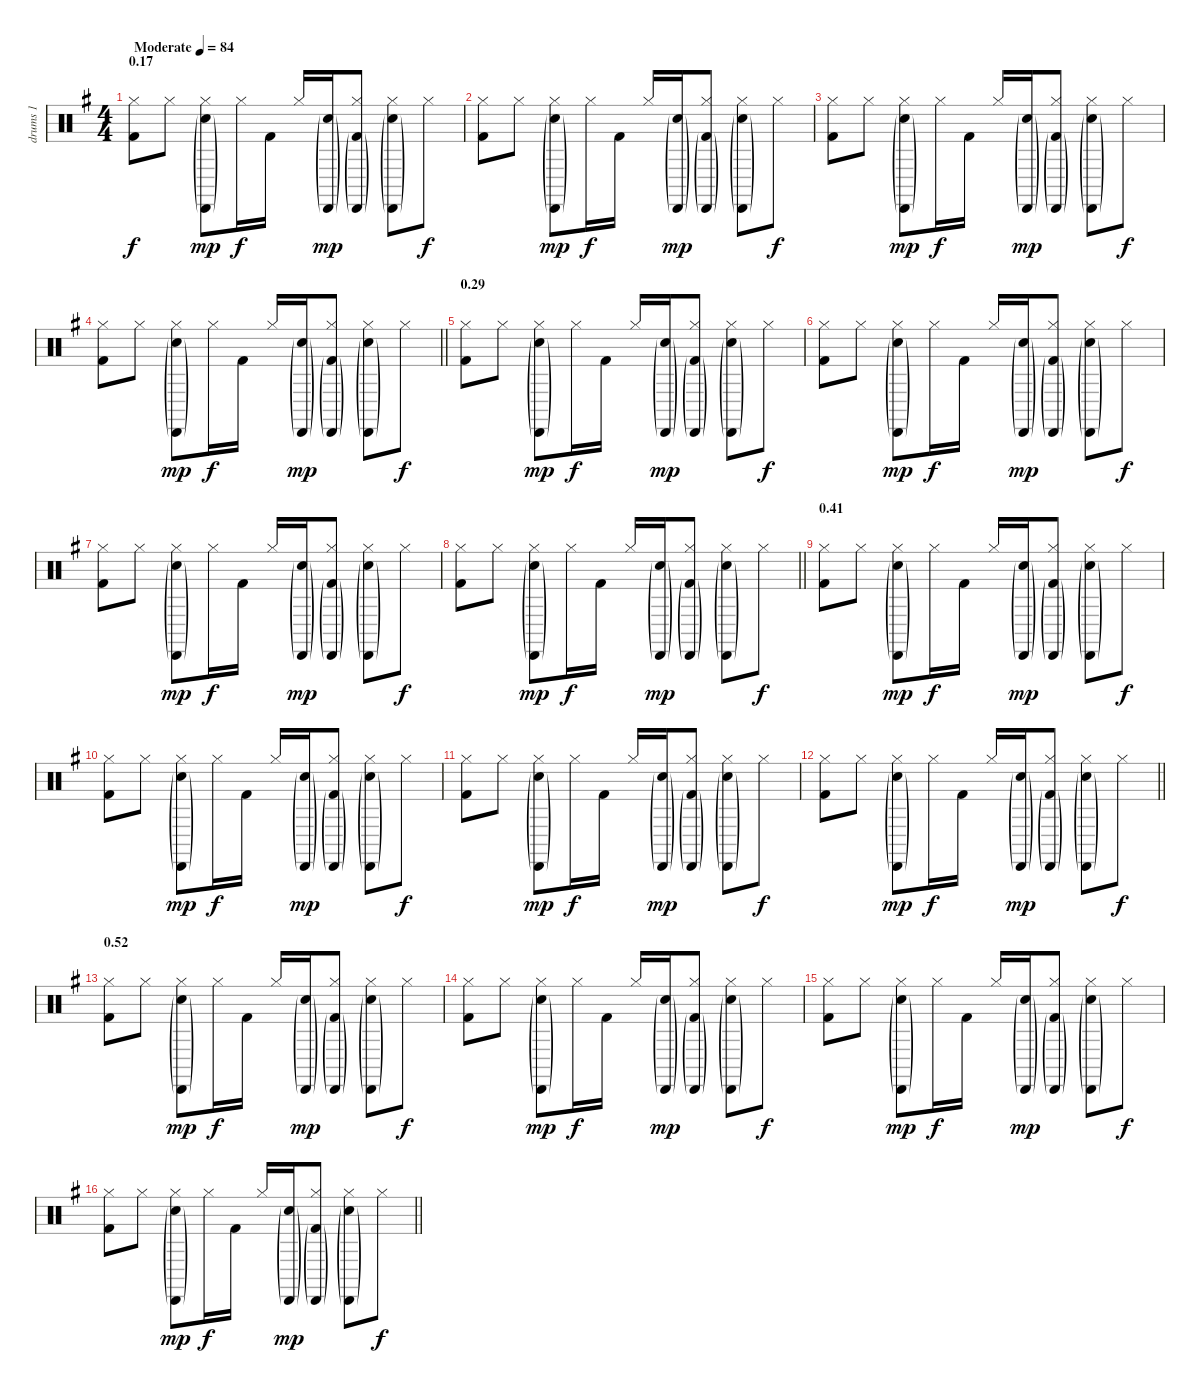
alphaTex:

\track ("drums 1" "drums 1") {instrument percussion}
\staff {score}
\articulation defaults
\ts (4 4)
\section ("" "0.17")
\tempo (84 "Moderate")
\clef neutral
\ks g
("Hi-Hat (closed)" "Kick (hit) 2").8{dy f} "Hi-Hat (closed)".8 ("Cabasa (hit)"{g} "Hi-Hat (closed)" "Electric Snare (hit)"{g}).8{dy mp} "Hi-Hat (closed)".16{dy f} "Kick (hit) 2".16 "Hi-Hat (closed)".16 ("Cabasa (hit)"{g} "Electric Snare (hit)"{g}).16{dy mp} ("Cabasa (hit)"{g} "Hi-Hat (closed)" "Kick (hit) 2"{g}).8 ("Cabasa (hit)"{g} "Hi-Hat (closed)" "Electric Snare (hit)"{g}).8 "Hi-Hat (closed)".8{dy f} |
("Hi-Hat (closed)" "Kick (hit) 2").8 "Hi-Hat (closed)".8 ("Cabasa (hit)"{g} "Hi-Hat (closed)" "Electric Snare (hit)"{g}).8{dy mp} "Hi-Hat (closed)".16{dy f} "Kick (hit) 2".16 "Hi-Hat (closed)".16 ("Cabasa (hit)"{g} "Electric Snare (hit)"{g}).16{dy mp} ("Cabasa (hit)"{g} "Hi-Hat (closed)" "Kick (hit) 2"{g}).8 ("Cabasa (hit)"{g} "Hi-Hat (closed)" "Electric Snare (hit)"{g}).8 "Hi-Hat (closed)".8{dy f} |
("Hi-Hat (closed)" "Kick (hit) 2").8 "Hi-Hat (closed)".8 ("Cabasa (hit)"{g} "Hi-Hat (closed)" "Electric Snare (hit)"{g}).8{dy mp} "Hi-Hat (closed)".16{dy f} "Kick (hit) 2".16 "Hi-Hat (closed)".16 ("Cabasa (hit)"{g} "Electric Snare (hit)"{g}).16{dy mp} ("Cabasa (hit)"{g} "Hi-Hat (closed)" "Kick (hit) 2"{g}).8 ("Cabasa (hit)"{g} "Hi-Hat (closed)" "Electric Snare (hit)"{g}).8 "Hi-Hat (closed)".8{dy f} |
\barLineRight lightlight
("Hi-Hat (closed)" "Kick (hit) 2").8 "Hi-Hat (closed)".8 ("Cabasa (hit)"{g} "Hi-Hat (closed)" "Electric Snare (hit)"{g}).8{dy mp} "Hi-Hat (closed)".16{dy f} "Kick (hit) 2".16 "Hi-Hat (closed)".16 ("Cabasa (hit)"{g} "Electric Snare (hit)"{g}).16{dy mp} ("Cabasa (hit)"{g} "Hi-Hat (closed)" "Kick (hit) 2"{g}).8 ("Cabasa (hit)"{g} "Hi-Hat (closed)" "Electric Snare (hit)"{g}).8 "Hi-Hat (closed)".8{dy f} |
\section ("" "0.29")
("Hi-Hat (closed)" "Kick (hit) 2").8 "Hi-Hat (closed)".8 ("Cabasa (hit)"{g} "Hi-Hat (closed)" "Electric Snare (hit)"{g}).8{dy mp} "Hi-Hat (closed)".16{dy f} "Kick (hit) 2".16 "Hi-Hat (closed)".16 ("Cabasa (hit)"{g} "Electric Snare (hit)"{g}).16{dy mp} ("Cabasa (hit)"{g} "Hi-Hat (closed)" "Kick (hit) 2"{g}).8 ("Cabasa (hit)"{g} "Hi-Hat (closed)" "Electric Snare (hit)"{g}).8 "Hi-Hat (closed)".8{dy f} |
("Hi-Hat (closed)" "Kick (hit) 2").8 "Hi-Hat (closed)".8 ("Cabasa (hit)"{g} "Hi-Hat (closed)" "Electric Snare (hit)"{g}).8{dy mp} "Hi-Hat (closed)".16{dy f} "Kick (hit) 2".16 "Hi-Hat (closed)".16 ("Cabasa (hit)"{g} "Electric Snare (hit)"{g}).16{dy mp} ("Cabasa (hit)"{g} "Hi-Hat (closed)" "Kick (hit) 2"{g}).8 ("Cabasa (hit)"{g} "Hi-Hat (closed)" "Electric Snare (hit)"{g}).8 "Hi-Hat (closed)".8{dy f} |
("Hi-Hat (closed)" "Kick (hit) 2").8 "Hi-Hat (closed)".8 ("Cabasa (hit)"{g} "Hi-Hat (closed)" "Electric Snare (hit)"{g}).8{dy mp} "Hi-Hat (closed)".16{dy f} "Kick (hit) 2".16 "Hi-Hat (closed)".16 ("Cabasa (hit)"{g} "Electric Snare (hit)"{g}).16{dy mp} ("Cabasa (hit)"{g} "Hi-Hat (closed)" "Kick (hit) 2"{g}).8 ("Cabasa (hit)"{g} "Hi-Hat (closed)" "Electric Snare (hit)"{g}).8 "Hi-Hat (closed)".8{dy f} |
\barLineRight lightlight
("Hi-Hat (closed)" "Kick (hit) 2").8 "Hi-Hat (closed)".8 ("Cabasa (hit)"{g} "Hi-Hat (closed)" "Electric Snare (hit)"{g}).8{dy mp} "Hi-Hat (closed)".16{dy f} "Kick (hit) 2".16 "Hi-Hat (closed)".16 ("Cabasa (hit)"{g} "Electric Snare (hit)"{g}).16{dy mp} ("Cabasa (hit)"{g} "Hi-Hat (closed)" "Kick (hit) 2"{g}).8 ("Cabasa (hit)"{g} "Hi-Hat (closed)" "Electric Snare (hit)"{g}).8 "Hi-Hat (closed)".8{dy f} |
\section ("" "0.41")
("Hi-Hat (closed)" "Kick (hit) 2").8 "Hi-Hat (closed)".8 ("Cabasa (hit)"{g} "Hi-Hat (closed)" "Electric Snare (hit)"{g}).8{dy mp} "Hi-Hat (closed)".16{dy f} "Kick (hit) 2".16 "Hi-Hat (closed)".16 ("Cabasa (hit)"{g} "Electric Snare (hit)"{g}).16{dy mp} ("Cabasa (hit)"{g} "Hi-Hat (closed)" "Kick (hit) 2"{g}).8 ("Cabasa (hit)"{g} "Hi-Hat (closed)" "Electric Snare (hit)"{g}).8 "Hi-Hat (closed)".8{dy f} |
("Hi-Hat (closed)" "Kick (hit) 2").8 "Hi-Hat (closed)".8 ("Cabasa (hit)"{g} "Hi-Hat (closed)" "Electric Snare (hit)"{g}).8{dy mp} "Hi-Hat (closed)".16{dy f} "Kick (hit) 2".16 "Hi-Hat (closed)".16 ("Cabasa (hit)"{g} "Electric Snare (hit)"{g}).16{dy mp} ("Cabasa (hit)"{g} "Hi-Hat (closed)" "Kick (hit) 2"{g}).8 ("Cabasa (hit)"{g} "Hi-Hat (closed)" "Electric Snare (hit)"{g}).8 "Hi-Hat (closed)".8{dy f} |
("Hi-Hat (closed)" "Kick (hit) 2").8 "Hi-Hat (closed)".8 ("Cabasa (hit)"{g} "Hi-Hat (closed)" "Electric Snare (hit)"{g}).8{dy mp} "Hi-Hat (closed)".16{dy f} "Kick (hit) 2".16 "Hi-Hat (closed)".16 ("Cabasa (hit)"{g} "Electric Snare (hit)"{g}).16{dy mp} ("Cabasa (hit)"{g} "Hi-Hat (closed)" "Kick (hit) 2"{g}).8 ("Cabasa (hit)"{g} "Hi-Hat (closed)" "Electric Snare (hit)"{g}).8 "Hi-Hat (closed)".8{dy f} |
\barLineRight lightlight
("Hi-Hat (closed)" "Kick (hit) 2").8 "Hi-Hat (closed)".8 ("Cabasa (hit)"{g} "Hi-Hat (closed)" "Electric Snare (hit)"{g}).8{dy mp} "Hi-Hat (closed)".16{dy f} "Kick (hit) 2".16 "Hi-Hat (closed)".16 ("Cabasa (hit)"{g} "Electric Snare (hit)"{g}).16{dy mp} ("Cabasa (hit)"{g} "Hi-Hat (closed)" "Kick (hit) 2"{g}).8 ("Cabasa (hit)"{g} "Hi-Hat (closed)" "Electric Snare (hit)"{g}).8 "Hi-Hat (closed)".8{dy f} |
\section ("" "0.52")
("Hi-Hat (closed)" "Kick (hit) 2").8 "Hi-Hat (closed)".8 ("Cabasa (hit)"{g} "Hi-Hat (closed)" "Electric Snare (hit)"{g}).8{dy mp} "Hi-Hat (closed)".16{dy f} "Kick (hit) 2".16 "Hi-Hat (closed)".16 ("Cabasa (hit)"{g} "Electric Snare (hit)"{g}).16{dy mp} ("Cabasa (hit)"{g} "Hi-Hat (closed)" "Kick (hit) 2"{g}).8 ("Cabasa (hit)"{g} "Hi-Hat (closed)" "Electric Snare (hit)"{g}).8 "Hi-Hat (closed)".8{dy f} |
("Hi-Hat (closed)" "Kick (hit) 2").8 "Hi-Hat (closed)".8 ("Cabasa (hit)"{g} "Hi-Hat (closed)" "Electric Snare (hit)"{g}).8{dy mp} "Hi-Hat (closed)".16{dy f} "Kick (hit) 2".16 "Hi-Hat (closed)".16 ("Cabasa (hit)"{g} "Electric Snare (hit)"{g}).16{dy mp} ("Cabasa (hit)"{g} "Hi-Hat (closed)" "Kick (hit) 2"{g}).8 ("Cabasa (hit)"{g} "Hi-Hat (closed)" "Electric Snare (hit)"{g}).8 "Hi-Hat (closed)".8{dy f} |
("Hi-Hat (closed)" "Kick (hit) 2").8 "Hi-Hat (closed)".8 ("Cabasa (hit)"{g} "Hi-Hat (closed)" "Electric Snare (hit)"{g}).8{dy mp} "Hi-Hat (closed)".16{dy f} "Kick (hit) 2".16 "Hi-Hat (closed)".16 ("Cabasa (hit)"{g} "Electric Snare (hit)"{g}).16{dy mp} ("Cabasa (hit)"{g} "Hi-Hat (closed)" "Kick (hit) 2"{g}).8 ("Cabasa (hit)"{g} "Hi-Hat (closed)" "Electric Snare (hit)"{g}).8 "Hi-Hat (closed)".8{dy f} |
\barLineRight lightlight
("Hi-Hat (closed)" "Kick (hit) 2").8 "Hi-Hat (closed)".8 ("Cabasa (hit)"{g} "Hi-Hat (closed)" "Electric Snare (hit)"{g}).8{dy mp} "Hi-Hat (closed)".16{dy f} "Kick (hit) 2".16 "Hi-Hat (closed)".16 ("Cabasa (hit)"{g} "Electric Snare (hit)"{g}).16{dy mp} ("Cabasa (hit)"{g} "Hi-Hat (closed)" "Kick (hit) 2"{g}).8 ("Cabasa (hit)"{g} "Hi-Hat (closed)" "Electric Snare (hit)"{g}).8 "Hi-Hat (closed)".8{dy f}
